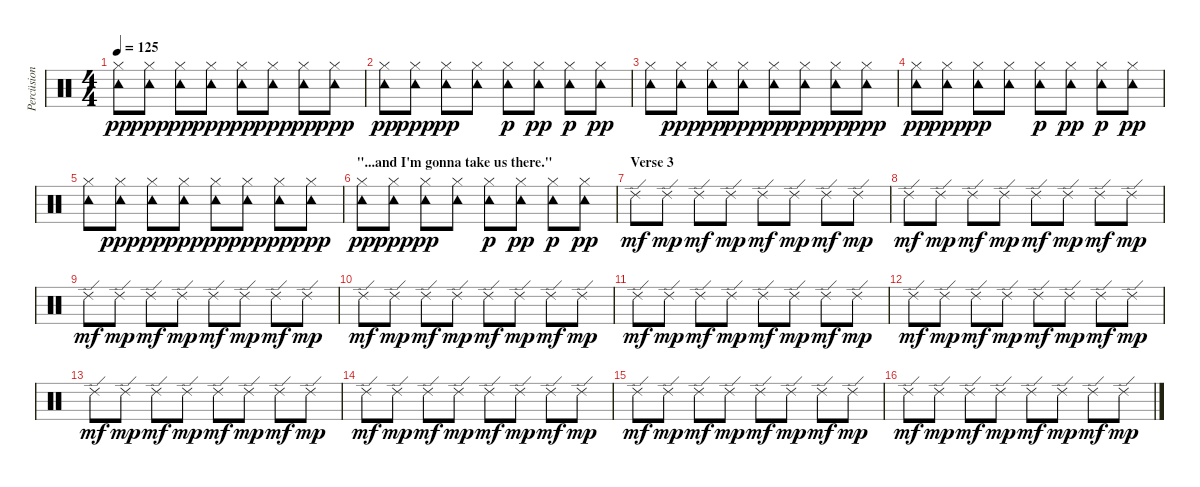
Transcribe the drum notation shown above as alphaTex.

\track ("Percüsion" "Percüsion") {instrument percussion}
\staff {score}
\articulation defaults
\ts (4 4)
\tempo 125
\clef neutral
\ks c
("Hi-Hat (closed)" "Tambourine (hit)").8{dy pp} ("Hi-Hat (closed)" "Tambourine (hit)").8{dy ppp} ("Hi-Hat (closed)" "Tambourine (hit)").8{dy pp} ("Hi-Hat (closed)" "Tambourine (hit)").8{dy ppp} ("Hi-Hat (closed)" "Tambourine (hit)").8{dy pp} ("Hi-Hat (closed)" "Tambourine (hit)").8{dy ppp} ("Hi-Hat (closed)" "Tambourine (hit)").8{dy pp} ("Hi-Hat (closed)" "Tambourine (hit)").8{dy ppp} |
("Hi-Hat (closed)" "Tambourine (hit)").8{dy pp} ("Hi-Hat (closed)" "Tambourine (hit)").8{dy ppp} ("Hi-Hat (closed)" "Tambourine (hit)").8{dy pp} ("Hi-Hat (closed)" "Tambourine (hit)").8 ("Hi-Hat (closed)" "Tambourine (hit)").8{dy p} ("Hi-Hat (closed)" "Tambourine (hit)").8{dy pp} ("Hi-Hat (closed)" "Tambourine (hit)").8{dy p} ("Hi-Hat (closed)" "Tambourine (hit)").8{dy pp} |
("Hi-Hat (closed)" "Tambourine (hit)").8 ("Hi-Hat (closed)" "Tambourine (hit)").8{dy ppp} ("Hi-Hat (closed)" "Tambourine (hit)").8{dy pp} ("Hi-Hat (closed)" "Tambourine (hit)").8{dy ppp} ("Hi-Hat (closed)" "Tambourine (hit)").8{dy pp} ("Hi-Hat (closed)" "Tambourine (hit)").8{dy ppp} ("Hi-Hat (closed)" "Tambourine (hit)").8{dy pp} ("Hi-Hat (closed)" "Tambourine (hit)").8{dy ppp} |
("Hi-Hat (closed)" "Tambourine (hit)").8{dy pp} ("Hi-Hat (closed)" "Tambourine (hit)").8{dy ppp} ("Hi-Hat (closed)" "Tambourine (hit)").8{dy pp} ("Hi-Hat (closed)" "Tambourine (hit)").8 ("Hi-Hat (closed)" "Tambourine (hit)").8{dy p} ("Hi-Hat (closed)" "Tambourine (hit)").8{dy pp} ("Hi-Hat (closed)" "Tambourine (hit)").8{dy p} ("Hi-Hat (closed)" "Tambourine (hit)").8{dy pp} |
("Hi-Hat (closed)" "Tambourine (hit)").8 ("Hi-Hat (closed)" "Tambourine (hit)").8{dy ppp} ("Hi-Hat (closed)" "Tambourine (hit)").8{dy pp} ("Hi-Hat (closed)" "Tambourine (hit)").8{dy ppp} ("Hi-Hat (closed)" "Tambourine (hit)").8{dy pp} ("Hi-Hat (closed)" "Tambourine (hit)").8{dy ppp} ("Hi-Hat (closed)" "Tambourine (hit)").8{dy pp} ("Hi-Hat (closed)" "Tambourine (hit)").8{dy ppp} |
\section ("" "\"...and I'm gonna take us there.\"")
("Hi-Hat (closed)" "Tambourine (hit)").8{dy pp} ("Hi-Hat (closed)" "Tambourine (hit)").8{dy ppp} ("Hi-Hat (closed)" "Tambourine (hit)").8{dy pp} ("Hi-Hat (closed)" "Tambourine (hit)").8 ("Hi-Hat (closed)" "Tambourine (hit)").8{dy p} ("Hi-Hat (closed)" "Tambourine (hit)").8{dy pp} ("Hi-Hat (closed)" "Tambourine (hit)").8{dy p} ("Hi-Hat (closed)" "Tambourine (hit)").8{dy pp} |
\section ("" "Verse 3")
"Ride (edge) 2".8{dy mf} "Ride (edge) 2".8{dy mp} "Ride (edge) 2".8{dy mf} "Ride (edge) 2".8{dy mp} "Ride (edge) 2".8{dy mf} "Ride (edge) 2".8{dy mp} "Ride (edge) 2".8{dy mf} "Ride (edge) 2".8{dy mp} |
"Ride (edge) 2".8{dy mf} "Ride (edge) 2".8{dy mp} "Ride (edge) 2".8{dy mf} "Ride (edge) 2".8{dy mp} "Ride (edge) 2".8{dy mf} "Ride (edge) 2".8{dy mp} "Ride (edge) 2".8{dy mf} "Ride (edge) 2".8{dy mp} |
"Ride (edge) 2".8{dy mf} "Ride (edge) 2".8{dy mp} "Ride (edge) 2".8{dy mf} "Ride (edge) 2".8{dy mp} "Ride (edge) 2".8{dy mf} "Ride (edge) 2".8{dy mp} "Ride (edge) 2".8{dy mf} "Ride (edge) 2".8{dy mp} |
"Ride (edge) 2".8{dy mf} "Ride (edge) 2".8{dy mp} "Ride (edge) 2".8{dy mf} "Ride (edge) 2".8{dy mp} "Ride (edge) 2".8{dy mf} "Ride (edge) 2".8{dy mp} "Ride (edge) 2".8{dy mf} "Ride (edge) 2".8{dy mp} |
"Ride (edge) 2".8{dy mf} "Ride (edge) 2".8{dy mp} "Ride (edge) 2".8{dy mf} "Ride (edge) 2".8{dy mp} "Ride (edge) 2".8{dy mf} "Ride (edge) 2".8{dy mp} "Ride (edge) 2".8{dy mf} "Ride (edge) 2".8{dy mp} |
"Ride (edge) 2".8{dy mf} "Ride (edge) 2".8{dy mp} "Ride (edge) 2".8{dy mf} "Ride (edge) 2".8{dy mp} "Ride (edge) 2".8{dy mf} "Ride (edge) 2".8{dy mp} "Ride (edge) 2".8{dy mf} "Ride (edge) 2".8{dy mp} |
"Ride (edge) 2".8{dy mf} "Ride (edge) 2".8{dy mp} "Ride (edge) 2".8{dy mf} "Ride (edge) 2".8{dy mp} "Ride (edge) 2".8{dy mf} "Ride (edge) 2".8{dy mp} "Ride (edge) 2".8{dy mf} "Ride (edge) 2".8{dy mp} |
"Ride (edge) 2".8{dy mf} "Ride (edge) 2".8{dy mp} "Ride (edge) 2".8{dy mf} "Ride (edge) 2".8{dy mp} "Ride (edge) 2".8{dy mf} "Ride (edge) 2".8{dy mp} "Ride (edge) 2".8{dy mf} "Ride (edge) 2".8{dy mp} |
"Ride (edge) 2".8{dy mf} "Ride (edge) 2".8{dy mp} "Ride (edge) 2".8{dy mf} "Ride (edge) 2".8{dy mp} "Ride (edge) 2".8{dy mf} "Ride (edge) 2".8{dy mp} "Ride (edge) 2".8{dy mf} "Ride (edge) 2".8{dy mp} |
"Ride (edge) 2".8{dy mf} "Ride (edge) 2".8{dy mp} "Ride (edge) 2".8{dy mf} "Ride (edge) 2".8{dy mp} "Ride (edge) 2".8{dy mf} "Ride (edge) 2".8{dy mp} "Ride (edge) 2".8{dy mf} "Ride (edge) 2".8{dy mp}
